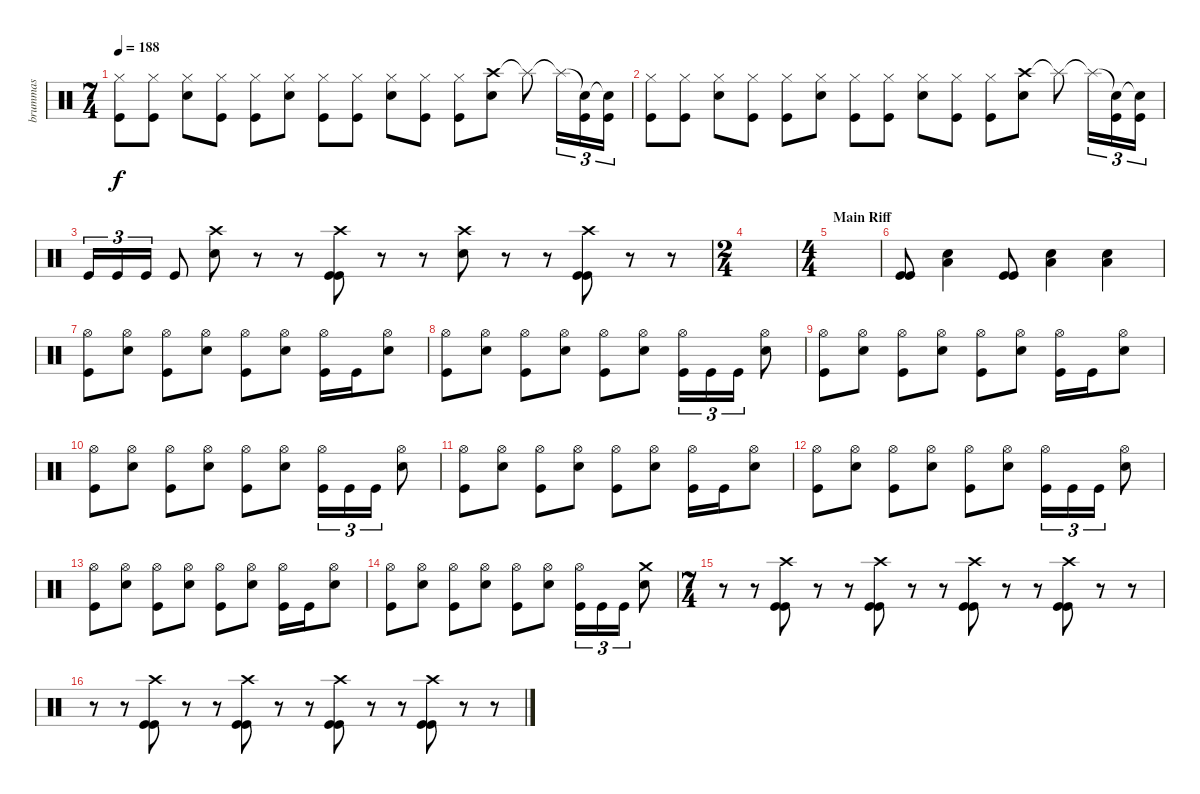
\track ("brummas" "brummas") {instrument percussion}
\staff {score}
\articulation defaults
\ts (7 4)
\tempo 188
\clef neutral
\ks c
("Hi-Hat (closed)" "Kick (hit)").8{dy f} ("Hi-Hat (closed)" "Kick (hit)").8 ("Hi-Hat (closed)" "Snare (hit) 2").8 ("Hi-Hat (closed)" "Kick (hit)").8 ("Hi-Hat (closed)" "Kick (hit)").8 ("Hi-Hat (closed)" "Snare (hit) 2").8 ("Hi-Hat (closed)" "Kick (hit)").8 ("Hi-Hat (closed)" "Kick (hit)").8 ("Hi-Hat (closed)" "Snare (hit) 2").8 ("Hi-Hat (closed)" "Kick (hit)").8 ("Hi-Hat (closed)" "Kick (hit)").8 ("Crash high (hit)" "Snare (hit) 2").8 "Splash (hit)"{t}.8 "Splash (hit)"{t}.16{tu (3 2)} ("Snare (hit)"{t} "Kick (hit)").16{tu (3 2)} ("Snare (hit)"{t} "Kick (hit)").16{tu (3 2)} |
("Hi-Hat (closed)" "Kick (hit)").8 ("Hi-Hat (closed)" "Kick (hit)").8 ("Hi-Hat (closed)" "Snare (hit) 2").8 ("Hi-Hat (closed)" "Kick (hit)").8 ("Hi-Hat (closed)" "Kick (hit)").8 ("Hi-Hat (closed)" "Snare (hit) 2").8 ("Hi-Hat (closed)" "Kick (hit)").8 ("Hi-Hat (closed)" "Kick (hit)").8 ("Hi-Hat (closed)" "Snare (hit) 2").8 ("Hi-Hat (closed)" "Kick (hit)").8 ("Hi-Hat (closed)" "Kick (hit)").8 ("Crash high (hit)" "Snare (hit) 2").8 "Splash (hit)"{t}.8 "Splash (hit)"{t}.16{tu (3 2)} ("Snare (hit)"{t} "Kick (hit)").16{tu (3 2)} ("Snare (hit)"{t} "Kick (hit)").16{tu (3 2)} |
"Kick (hit)".16{tu (3 2)} "Kick (hit)".16{tu (3 2)} "Kick (hit)".16{tu (3 2)} "Kick (hit)".8 ("Crash high (hit)" "Snare (hit) 2").8 r.8 r.8 ("Crash high (hit)" "Kick (hit)" "Kick (hit)").8 r.8 r.8 ("Crash high (hit)" "Snare (hit) 2").8 r.8 r.8 ("Crash high (hit)" "Kick (hit)" "Kick (hit)").8 r.8 r.8 |
\ts (2 4)
|
\ts (4 4)
\section ("" "Main Riff")
|
("Kick (hit)" "Kick (hit)").8 ("Low Floor Tom (hit)" "Snare (hit) 2").4 ("Kick (hit)" "Kick (hit)").8 ("Low Floor Tom (hit)" "Snare (hit) 2").4 ("Low Floor Tom (hit)" "Snare (hit) 2").4 |
("Hi-Hat (open)" "Kick (hit)").8 ("Hi-Hat (open)" "Snare (hit) 2").8 ("Hi-Hat (open)" "Kick (hit)").8 ("Hi-Hat (open)" "Snare (hit) 2").8 ("Hi-Hat (open)" "Kick (hit)").8 ("Hi-Hat (open)" "Snare (hit) 2").8 ("Hi-Hat (open)" "Kick (hit)").16 "Kick (hit)".16 ("Hi-Hat (open)" "Snare (hit) 2").8 |
("Hi-Hat (open)" "Kick (hit)").8 ("Hi-Hat (open)" "Snare (hit) 2").8 ("Hi-Hat (open)" "Kick (hit)").8 ("Hi-Hat (open)" "Snare (hit) 2").8 ("Hi-Hat (open)" "Kick (hit)").8 ("Hi-Hat (open)" "Snare (hit) 2").8 ("Hi-Hat (open)" "Kick (hit)").16{tu (3 2)} "Kick (hit)".16{tu (3 2)} "Kick (hit)".16{tu (3 2)} ("Hi-Hat (open)" "Snare (hit) 2").8 |
("Hi-Hat (open)" "Kick (hit)").8 ("Hi-Hat (open)" "Snare (hit) 2").8 ("Hi-Hat (open)" "Kick (hit)").8 ("Hi-Hat (open)" "Snare (hit) 2").8 ("Hi-Hat (open)" "Kick (hit)").8 ("Hi-Hat (open)" "Snare (hit) 2").8 ("Hi-Hat (open)" "Kick (hit)").16 "Kick (hit)".16 ("Hi-Hat (open)" "Snare (hit) 2").8 |
("Hi-Hat (open)" "Kick (hit)").8 ("Hi-Hat (open)" "Snare (hit) 2").8 ("Hi-Hat (open)" "Kick (hit)").8 ("Hi-Hat (open)" "Snare (hit) 2").8 ("Hi-Hat (open)" "Kick (hit)").8 ("Hi-Hat (open)" "Snare (hit) 2").8 ("Hi-Hat (open)" "Kick (hit)").16{tu (3 2)} "Kick (hit)".16{tu (3 2)} "Kick (hit)".16{tu (3 2)} ("Hi-Hat (open)" "Snare (hit) 2").8 |
("Hi-Hat (open)" "Kick (hit)").8 ("Hi-Hat (open)" "Snare (hit) 2").8 ("Hi-Hat (open)" "Kick (hit)").8 ("Hi-Hat (open)" "Snare (hit) 2").8 ("Hi-Hat (open)" "Kick (hit)").8 ("Hi-Hat (open)" "Snare (hit) 2").8 ("Hi-Hat (open)" "Kick (hit)").16 "Kick (hit)".16 ("Hi-Hat (open)" "Snare (hit) 2").8 |
("Hi-Hat (open)" "Kick (hit)").8 ("Hi-Hat (open)" "Snare (hit) 2").8 ("Hi-Hat (open)" "Kick (hit)").8 ("Hi-Hat (open)" "Snare (hit) 2").8 ("Hi-Hat (open)" "Kick (hit)").8 ("Hi-Hat (open)" "Snare (hit) 2").8 ("Hi-Hat (open)" "Kick (hit)").16{tu (3 2)} "Kick (hit)".16{tu (3 2)} "Kick (hit)".16{tu (3 2)} ("Hi-Hat (open)" "Snare (hit) 2").8 |
("Hi-Hat (open)" "Kick (hit)").8 ("Hi-Hat (open)" "Snare (hit) 2").8 ("Hi-Hat (open)" "Kick (hit)").8 ("Hi-Hat (open)" "Snare (hit) 2").8 ("Hi-Hat (open)" "Kick (hit)").8 ("Hi-Hat (open)" "Snare (hit) 2").8 ("Hi-Hat (open)" "Kick (hit)").16 "Kick (hit)".16 ("Hi-Hat (open)" "Snare (hit) 2").8 |
("Hi-Hat (open)" "Kick (hit)").8 ("Hi-Hat (open)" "Snare (hit) 2").8 ("Hi-Hat (open)" "Kick (hit)").8 ("Hi-Hat (open)" "Snare (hit) 2").8 ("Hi-Hat (open)" "Kick (hit)").8 ("Hi-Hat (open)" "Snare (hit) 2").8 ("Hi-Hat (open)" "Kick (hit)").16{tu (3 2)} "Kick (hit)".16{tu (3 2)} "Kick (hit)".16{tu (3 2)} ("Crash medium (hit)" "Snare (hit) 2").8 |
\ts (7 4)
r.8 r.8 ("Crash high (hit)" "Kick (hit)" "Kick (hit)").8 r.8 r.8 ("Crash high (hit)" "Kick (hit)" "Kick (hit)").8 r.8 r.8 ("Crash high (hit)" "Kick (hit)" "Kick (hit)").8 r.8 r.8 ("Crash high (hit)" "Kick (hit)" "Kick (hit)").8 r.8 r.8 |
r.8 r.8 ("Crash high (hit)" "Kick (hit)" "Kick (hit)").8 r.8 r.8 ("Crash high (hit)" "Kick (hit)" "Kick (hit)").8 r.8 r.8 ("Crash high (hit)" "Kick (hit)" "Kick (hit)").8 r.8 r.8 ("Crash high (hit)" "Kick (hit)" "Kick (hit)").8 r.8 r.8
